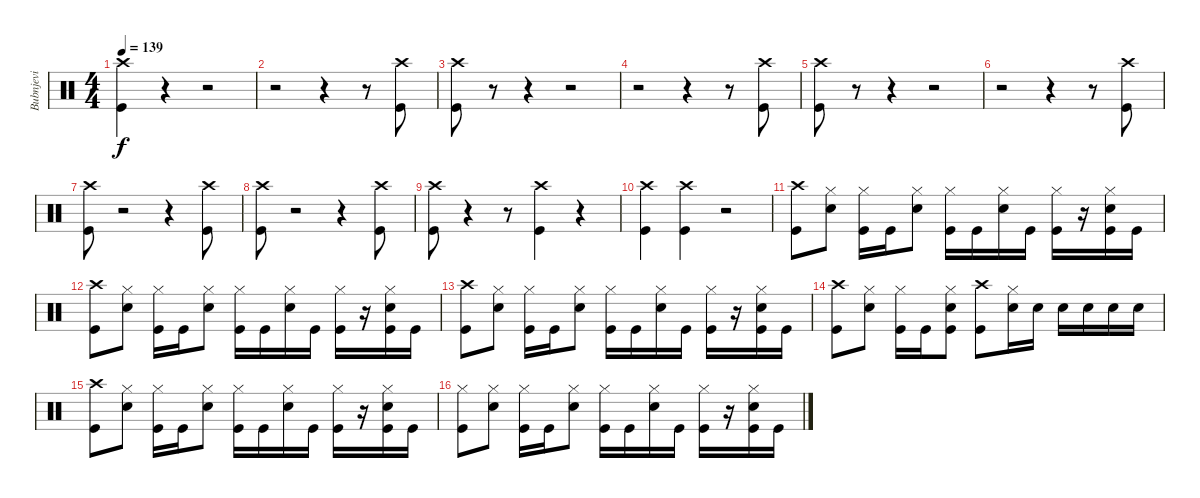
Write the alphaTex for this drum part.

\track ("Bubnjevi" "Bubnjevi") {instrument percussion}
\staff {score}
\articulation defaults
\ts (4 4)
\tempo 139
\clef neutral
\ks c
("Crash high (hit)" "Kick (hit)").4{dy f} r.4 r.2 |
r.2 r.4 r.8 ("Crash high (hit)" "Kick (hit)").8 |
("Crash high (hit)" "Kick (hit)").8 r.8 r.4 r.2 |
r.2 r.4 r.8 ("Crash high (hit)" "Kick (hit)").8 |
("Crash high (hit)" "Kick (hit)").8 r.8 r.4 r.2 |
r.2 r.4 r.8 ("Crash high (hit)" "Kick (hit)").8 |
("Crash high (hit)" "Kick (hit)").8 r.2 r.4 ("Crash high (hit)" "Kick (hit)").8 |
("Crash high (hit)" "Kick (hit)").8 r.2 r.4 ("Crash high (hit)" "Kick (hit)").8 |
("Crash high (hit)" "Kick (hit)").8 r.4 r.8 ("Crash high (hit)" "Kick (hit)").4 r.4 |
("Crash high (hit)" "Kick (hit)").4 ("Crash high (hit)" "Kick (hit)").4 r.2 |
("Crash high (hit)" "Kick (hit)").8 ("Hi-Hat (closed)" "Snare (hit) 2").8 ("Hi-Hat (closed)" "Kick (hit)").16 "Kick (hit)".16 ("Hi-Hat (closed)" "Snare (hit) 2").8 ("Hi-Hat (closed)" "Kick (hit)").16 "Kick (hit)".16 ("Hi-Hat (closed)" "Snare (hit) 2").16 "Kick (hit)".16 ("Hi-Hat (closed)" "Kick (hit)").16 r.16 ("Hi-Hat (closed)" "Snare (hit) 2" "Kick (hit)").16 "Kick (hit)".16 |
("Crash high (hit)" "Kick (hit)").8 ("Hi-Hat (closed)" "Snare (hit) 2").8 ("Hi-Hat (closed)" "Kick (hit)").16 "Kick (hit)".16 ("Hi-Hat (closed)" "Snare (hit) 2").8 ("Hi-Hat (closed)" "Kick (hit)").16 "Kick (hit)".16 ("Hi-Hat (closed)" "Snare (hit) 2").16 "Kick (hit)".16 ("Hi-Hat (closed)" "Kick (hit)").16 r.16 ("Hi-Hat (closed)" "Snare (hit) 2" "Kick (hit)").16 "Kick (hit)".16 |
("Crash high (hit)" "Kick (hit)").8 ("Hi-Hat (closed)" "Snare (hit) 2").8 ("Hi-Hat (closed)" "Kick (hit)").16 "Kick (hit)".16 ("Hi-Hat (closed)" "Snare (hit) 2").8 ("Hi-Hat (closed)" "Kick (hit)").16 "Kick (hit)".16 ("Hi-Hat (closed)" "Snare (hit) 2").16 "Kick (hit)".16 ("Hi-Hat (closed)" "Kick (hit)").16 r.16 ("Hi-Hat (closed)" "Snare (hit) 2" "Kick (hit)").16 "Kick (hit)".16 |
("Crash high (hit)" "Kick (hit)").8 ("Hi-Hat (closed)" "Snare (hit) 2").8 ("Hi-Hat (closed)" "Kick (hit)").16 "Kick (hit)".16 ("Hi-Hat (closed)" "Snare (hit) 2" "Kick (hit)").8 ("Crash high (hit)" "Kick (hit)").8 ("Hi-Hat (closed)" "Snare (hit) 2").16 "Snare (hit) 2".16 "Snare (hit) 2".16 "Snare (hit) 2".16 "Snare (hit) 2".16 "Snare (hit) 2".16 |
("Crash high (hit)" "Kick (hit)").8 ("Hi-Hat (closed)" "Snare (hit) 2").8 ("Hi-Hat (closed)" "Kick (hit)").16 "Kick (hit)".16 ("Hi-Hat (closed)" "Snare (hit) 2").8 ("Hi-Hat (closed)" "Kick (hit)").16 "Kick (hit)".16 ("Hi-Hat (closed)" "Snare (hit) 2").16 "Kick (hit)".16 ("Hi-Hat (closed)" "Kick (hit)").16 r.16 ("Hi-Hat (closed)" "Snare (hit) 2" "Kick (hit)").16 "Kick (hit)".16 |
("Hi-Hat (closed)" "Kick (hit)").8 ("Hi-Hat (closed)" "Snare (hit) 2").8 ("Hi-Hat (closed)" "Kick (hit)").16 "Kick (hit)".16 ("Hi-Hat (closed)" "Snare (hit) 2").8 ("Hi-Hat (closed)" "Kick (hit)").16 "Kick (hit)".16 ("Hi-Hat (closed)" "Snare (hit) 2").16 "Kick (hit)".16 ("Hi-Hat (closed)" "Kick (hit)").16 r.16 ("Hi-Hat (closed)" "Snare (hit) 2" "Kick (hit)").16 "Kick (hit)".16
